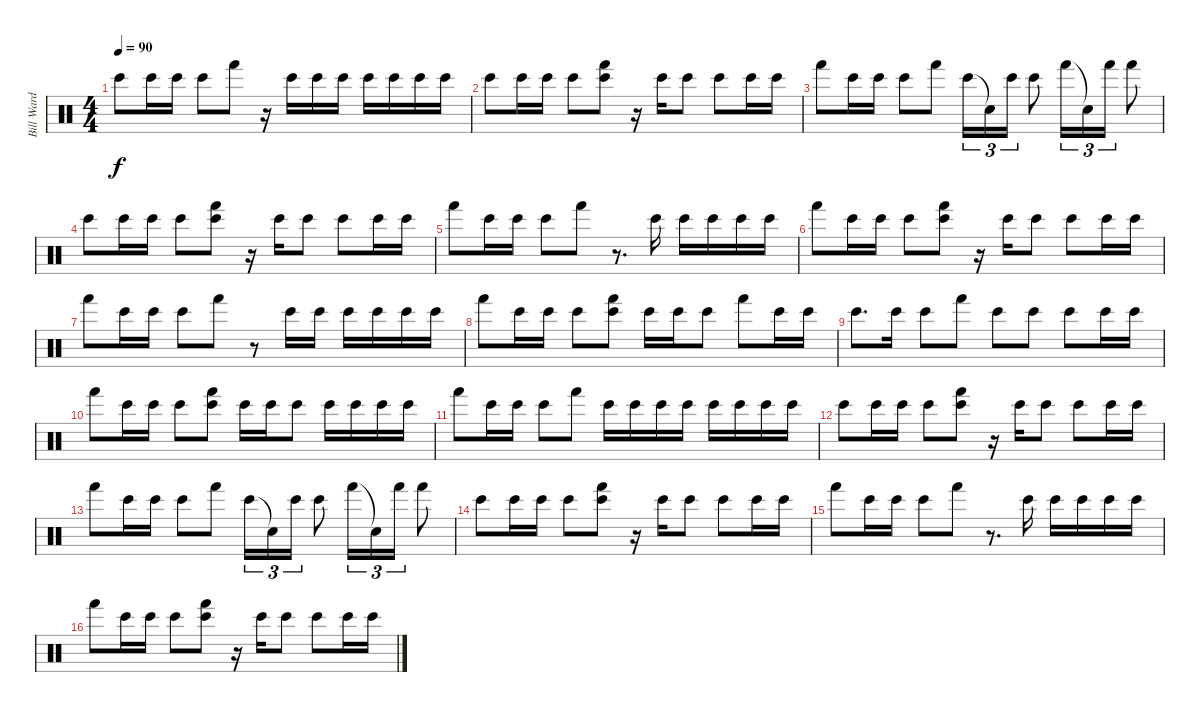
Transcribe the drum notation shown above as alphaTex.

\track ("Bill Ward" "Bill Ward") {instrument percussion}
\staff {score}
\articulation defaults
\ts (4 4)
\tempo 90
\clef neutral
\ks c "Bongo High (hit)".8{dy f} "Bongo High (hit)".16 "Bongo High (hit)".16 "Bongo High (hit)".8 "Hand (hit)".8
r.16 "Bongo High (hit)".16 "Bongo High (hit)".16 "Bongo High (hit)".16 "Bongo High (hit)".16 "Bongo High (hit)".16 "Bongo High (hit)".16 "Bongo High (hit)".16 |
"Bongo High (hit)".8 "Bongo High (hit)".16 "Bongo High (hit)".16 "Bongo High (hit)".8 ("Bongo High (hit)" "Hand (hit)").8 r.16 "Bongo High (hit)".16 "Bongo High (hit)".8 "Bongo High (hit)".8 "Bongo High (hit)".16 "Bongo High (hit)".16 |
"Hand (hit)".8 "Bongo High (hit)".16 "Bongo High (hit)".16 "Bongo High (hit)".8 "Hand (hit)".8 "Bongo High (hit)".16{tu (3 2)} "Snare (hit)"{t}.16{tu (3 2)} "Bongo High (hit)".16{tu (3 2)} "Bongo High (hit)".8 "Hand (hit)".16{tu (3 2)} "Snare (hit)"{t}.16{tu (3 2)} "Hand (hit)".16{tu (3 2)} "Hand (hit)".8 |
"Bongo High (hit)".8 "Bongo High (hit)".16 "Bongo High (hit)".16 "Bongo High (hit)".8 ("Bongo High (hit)" "Hand (hit)").8 r.16 "Bongo High (hit)".16 "Bongo High (hit)".8 "Bongo High (hit)".8 "Bongo High (hit)".16 "Bongo High (hit)".16 |
"Hand (hit)".8 "Bongo High (hit)".16 "Bongo High (hit)".16 "Bongo High (hit)".8 "Hand (hit)".8 r.8{d} "Bongo High (hit)".16 "Bongo High (hit)".16 "Bongo High (hit)".16 "Bongo High (hit)".16 "Bongo High (hit)".16 |
"Hand (hit)".8 "Bongo High (hit)".16 "Bongo High (hit)".16 "Bongo High (hit)".8 ("Bongo High (hit)" "Hand (hit)").8 r.16 "Bongo High (hit)".16 "Bongo High (hit)".8 "Bongo High (hit)".8 "Bongo High (hit)".16 "Bongo High (hit)".16 |
"Hand (hit)".8 "Bongo High (hit)".16 "Bongo High (hit)".16 "Bongo High (hit)".8 "Hand (hit)".8 r.8 "Bongo High (hit)".16 "Bongo High (hit)".16 "Bongo High (hit)".16 "Bongo High (hit)".16 "Bongo High (hit)".16 "Bongo High (hit)".16 |
"Hand (hit)".8 "Bongo High (hit)".16 "Bongo High (hit)".16 "Bongo High (hit)".8 ("Bongo High (hit)" "Hand (hit)").8 "Bongo High (hit)".16 "Bongo High (hit)".16 "Bongo High (hit)".8 "Hand (hit)".8 "Bongo High (hit)".16 "Bongo High (hit)".16 |
"Bongo High (hit)".8{d} "Bongo High (hit)".16 "Bongo High (hit)".8 "Hand (hit)".8 "Bongo High (hit)".8 "Bongo High (hit)".8 "Bongo High (hit)".8 "Bongo High (hit)".16 "Bongo High (hit)".16 |
"Hand (hit)".8 "Bongo High (hit)".16 "Bongo High (hit)".16 "Bongo High (hit)".8 ("Bongo High (hit)" "Hand (hit)").8 "Bongo High (hit)".16 "Bongo High (hit)".16 "Bongo High (hit)".8 "Bongo High (hit)".16 "Bongo High (hit)".16 "Bongo High (hit)".16 "Bongo High (hit)".16 |
"Hand (hit)".8 "Bongo High (hit)".16 "Bongo High (hit)".16 "Bongo High (hit)".8 "Hand (hit)".8 "Bongo High (hit)".16 "Bongo High (hit)".16 "Bongo High (hit)".16 "Bongo High (hit)".16 "Bongo High (hit)".16 "Bongo High (hit)".16 "Bongo High (hit)".16 "Bongo High (hit)".16 |
"Bongo High (hit)".8 "Bongo High (hit)".16 "Bongo High (hit)".16 "Bongo High (hit)".8 ("Bongo High (hit)" "Hand (hit)").8 r.16 "Bongo High (hit)".16 "Bongo High (hit)".8 "Bongo High (hit)".8 "Bongo High (hit)".16 "Bongo High (hit)".16 |
"Hand (hit)".8 "Bongo High (hit)".16 "Bongo High (hit)".16 "Bongo High (hit)".8 "Hand (hit)".8 "Bongo High (hit)".16{tu (3 2)} "Snare (hit)"{t}.16{tu (3 2)} "Bongo High (hit)".16{tu (3 2)} "Bongo High (hit)".8 "Hand (hit)".16{tu (3 2)} "Snare (hit)"{t}.16{tu (3 2)} "Hand (hit)".16{tu (3 2)} "Hand (hit)".8 |
"Bongo High (hit)".8 "Bongo High (hit)".16 "Bongo High (hit)".16 "Bongo High (hit)".8 ("Bongo High (hit)" "Hand (hit)").8 r.16 "Bongo High (hit)".16 "Bongo High (hit)".8 "Bongo High (hit)".8 "Bongo High (hit)".16 "Bongo High (hit)".16 |
"Hand (hit)".8 "Bongo High (hit)".16 "Bongo High (hit)".16 "Bongo High (hit)".8 "Hand (hit)".8 r.8{d} "Bongo High (hit)".16 "Bongo High (hit)".16 "Bongo High (hit)".16 "Bongo High (hit)".16 "Bongo High (hit)".16 |
"Hand (hit)".8 "Bongo High (hit)".16 "Bongo High (hit)".16 "Bongo High (hit)".8 ("Bongo High (hit)" "Hand (hit)").8 r.16 "Bongo High (hit)".16 "Bongo High (hit)".8 "Bongo High (hit)".8 "Bongo High (hit)".16 "Bongo High (hit)".16
